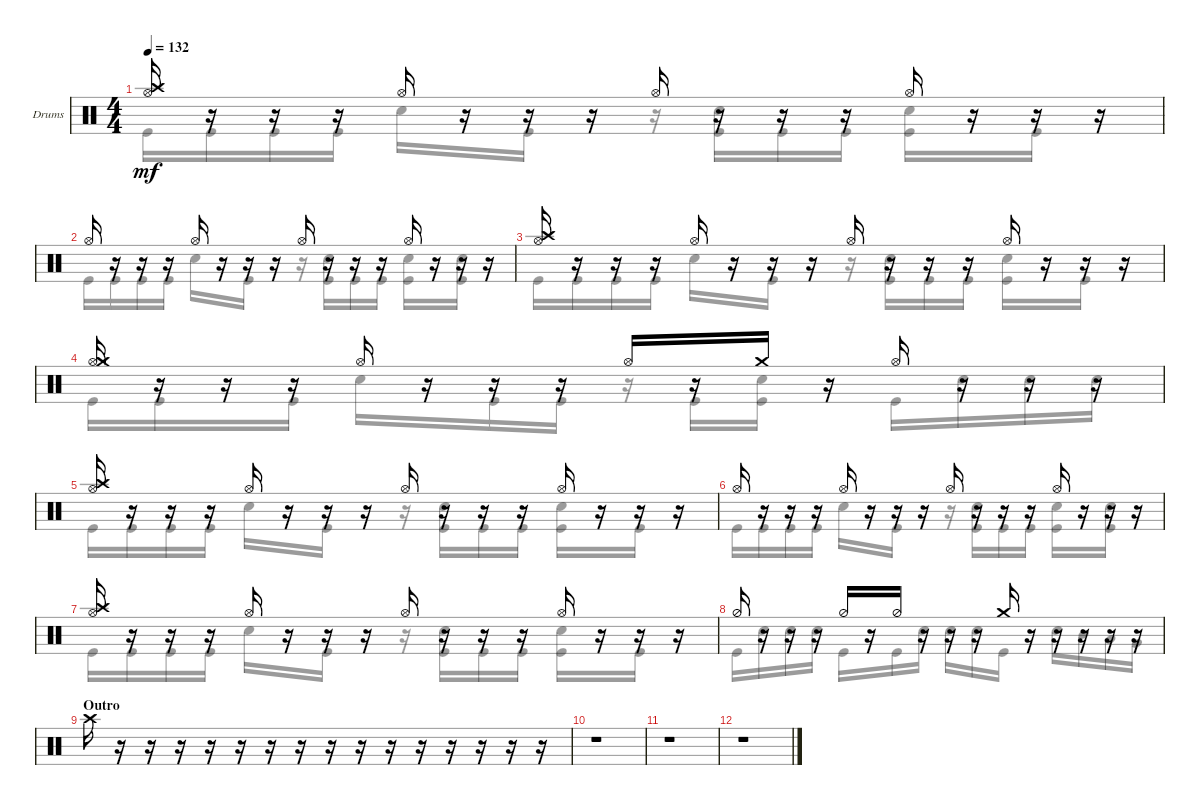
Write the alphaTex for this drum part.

\defaultSystemsLayout 4
\bracketExtendMode groupsimilarinstruments
\firstSystemTrackNameOrientation horizontal
\otherSystemsTrackNameOrientation horizontal
\track ("Drumkit" "Drums") {instrument percussion}
\staff {score}
\articulation defaults
\voice
\ts (4 4)
\tempo 132
\clef neutral
\ks c
("Crash high (hit)" "Hi-Hat (open)").16{dy mf} r.16 r.16 r.16 "Hi-Hat (open)".16 r.16 r.16 r.16 "Hi-Hat (open)".16 r.16 r.16 r.16 "Hi-Hat (open)".16 r.16 r.16 r.16 |
"Hi-Hat (open)".16 r.16 r.16 r.16 "Hi-Hat (open)".16 r.16 r.16 r.16 "Hi-Hat (open)".16 r.16 r.16 r.16 "Hi-Hat (open)".16 r.16 r.16 r.16 |
("Crash high (hit)" "Hi-Hat (open)").16 r.16 r.16 r.16 "Hi-Hat (open)".16 r.16 r.16 r.16 "Hi-Hat (open)".16 r.16 r.16 r.16 "Hi-Hat (open)".16 r.16 r.16 r.16 |
("Hi-Hat (open)" "Crash medium (hit)").16 r.16 r.16 r.16 "Hi-Hat (open)".16 r.16 r.16 r.16 "Hi-Hat (open)".16 r.16 "Crash medium (hit)".16 r.16 "Hi-Hat (open)".16 r.16 r.16 r.16 |
("Crash high (hit)" "Hi-Hat (open)").16 r.16 r.16 r.16 "Hi-Hat (open)".16 r.16 r.16 r.16 "Hi-Hat (open)".16 r.16 r.16 r.16 "Hi-Hat (open)".16 r.16 r.16 r.16 |
"Hi-Hat (open)".16 r.16 r.16 r.16 "Hi-Hat (open)".16 r.16 r.16 r.16 "Hi-Hat (open)".16 r.16 r.16 r.16 "Hi-Hat (open)".16 r.16 r.16 r.16 |
("Crash high (hit)" "Hi-Hat (open)").16 r.16 r.16 r.16 "Hi-Hat (open)".16 r.16 r.16 r.16 "Hi-Hat (open)".16 r.16 r.16 r.16 "Hi-Hat (open)".16 r.16 r.16 r.16 |
"Hi-Hat (half)".16 r.16 r.16 r.16 "Hi-Hat (half)".16 r.16 "Hi-Hat (half)".16 r.16 r.16 r.16 "Crash medium (hit)".16 r.16 r.16 r.16 r.16 r.16 |
\section ("" "Outro")
"Crash high (hit)".16 r.16 r.16 r.16 r.16 r.16 r.16 r.16 r.16 r.16 r.16 r.16 r.16 r.16 r.16 r.16 |
r.1 |
r.1 |
r.1
\voice
\clef neutral
\ottava regular
\simile none
\ks c "Kick (hit)".16{dy mf} "Kick (hit)".16 "Kick (hit)".16 "Kick (hit)".16 "Snare (hit) 2".16
r.16 "Kick (hit)".16 r.16 r.16 ("Kick (hit)" "Snare (hit) 2").16 "Kick (hit)".16 "Kick (hit)".16 ("Kick (hit)" "Snare (hit) 2").16 r.16 "Kick (hit)".16 r.16 |
"Kick (hit)".16 "Kick (hit)".16 "Kick (hit)".16 "Kick (hit)".16 "Snare (hit) 2".16 r.16 "Kick (hit)".16 r.16 r.16 ("Kick (hit)" "Snare (hit) 2").16 "Kick (hit)".16 "Kick (hit)".16 ("Kick (hit)" "Snare (hit) 2").16 r.16 ("Kick (hit)" "Snare (hit) 2").16 r.16 |
"Kick (hit)".16 "Kick (hit)".16 "Kick (hit)".16 "Kick (hit)".16 "Snare (hit) 2".16 r.16 "Kick (hit)".16 r.16 r.16 ("Kick (hit)" "Snare (hit) 2").16 "Kick (hit)".16 "Kick (hit)".16 ("Kick (hit)" "Snare (hit) 2").16 r.16 "Kick (hit)".16 r.16 |
"Kick (hit)".16 "Kick (hit)".16 r.16 "Kick (hit)".16 "Snare (hit) 2".16 r.16 "Kick (hit)".16 "Kick (hit)".16 r.16 "Kick (hit)".16 ("Kick (hit)" "Snare (hit) 2").16 r.16 "Kick (hit)".16 "Snare (hit) 2".16 "Snare (hit) 2".16 "Snare (hit) 2".16 |
"Kick (hit)".16 "Kick (hit)".16 "Kick (hit)".16 "Kick (hit)".16 "Snare (hit) 2".16 r.16 "Kick (hit)".16 r.16 r.16 ("Kick (hit)" "Snare (hit) 2").16 "Kick (hit)".16 "Kick (hit)".16 ("Kick (hit)" "Snare (hit) 2").16 r.16 "Kick (hit)".16 r.16 |
"Kick (hit)".16 "Kick (hit)".16 "Kick (hit)".16 "Kick (hit)".16 "Snare (hit) 2".16 r.16 "Kick (hit)".16 r.16 r.16 ("Kick (hit)" "Snare (hit) 2").16 "Kick (hit)".16 "Kick (hit)".16 ("Kick (hit)" "Snare (hit) 2").16 r.16 ("Kick (hit)" "Snare (hit) 2").16 r.16 |
"Kick (hit)".16 "Kick (hit)".16 "Kick (hit)".16 "Kick (hit)".16 "Snare (hit) 2".16 r.16 "Kick (hit)".16 r.16 r.16 ("Kick (hit)" "Snare (hit) 2").16 "Kick (hit)".16 "Kick (hit)".16 ("Kick (hit)" "Snare (hit) 2").16 r.16 "Kick (hit)".16 r.16 |
"Kick (hit)".16 "Snare (hit) 2".16 "Snare (hit) 2".16 "Snare (hit) 2".16 "Kick (hit)".16 r.16 "Kick (hit)".16 "Snare (hit) 2".16 "Snare (hit) 2".16 "Snare (hit) 2".16 "Kick (hit)".16 r.16 "Snare (hit) 2".16 "Mid Tom (hit)".16 "Low Tom (hit)".16 "Very Low Tom (hit)".16 |
|
|
|
